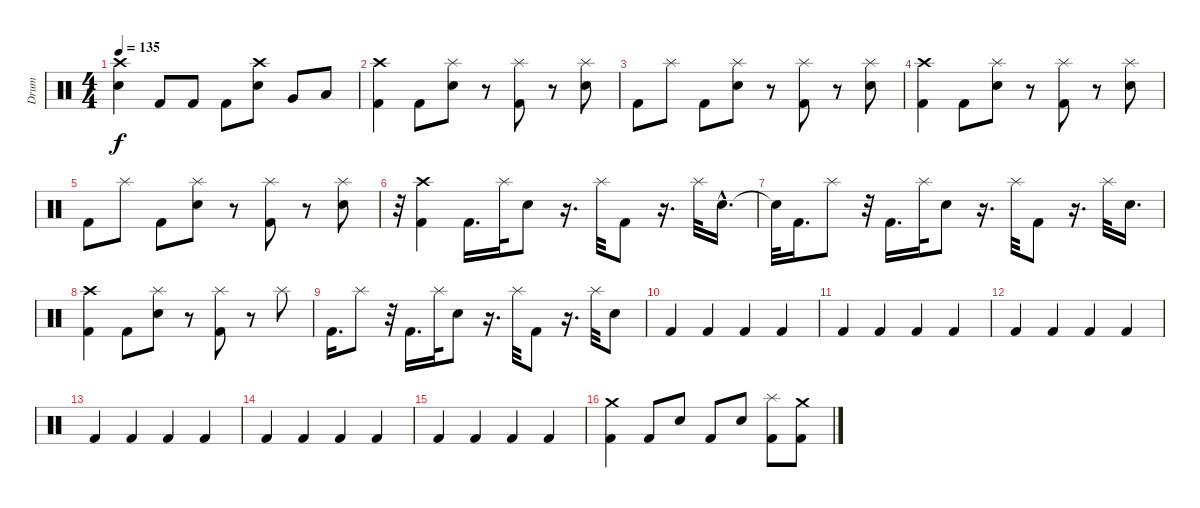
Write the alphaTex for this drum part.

\track ("Drum" "Drum") {instrument percussion}
\staff {score}
\articulation defaults
\ts (4 4)
\tempo 135
\clef neutral
\ks c
("Crash high (hit)" "Electric Snare (hit)").4{dy f} "Kick (hit) 2".8 "Kick (hit) 2".8 "Kick (hit) 2".8 ("Crash high (hit)" "Electric Snare (hit)").8 "Very Low Tom (hit)".8 "Low Floor Tom (hit)".8 |
("Crash high (hit)" "Kick (hit) 2").4 "Kick (hit) 2".8 ("Splash (hit)" "Electric Snare (hit)").8 r.8 ("Splash (hit)" "Kick (hit) 2").8 r.8 ("Splash (hit)" "Electric Snare (hit)").8 |
"Kick (hit) 2".8 "Splash (hit)".8 "Kick (hit) 2".8 ("Splash (hit)" "Electric Snare (hit)").8 r.8 ("Splash (hit)" "Kick (hit) 2").8 r.8 ("Splash (hit)" "Electric Snare (hit)").8 |
("Crash high (hit)" "Kick (hit) 2").4 "Kick (hit) 2".8 ("Splash (hit)" "Electric Snare (hit)").8 r.8 ("Splash (hit)" "Kick (hit) 2").8 r.8 ("Splash (hit)" "Electric Snare (hit)").8 |
"Kick (hit) 2".8 "Splash (hit)".8 "Kick (hit) 2".8 ("Splash (hit)" "Electric Snare (hit)").8 r.8 ("Splash (hit)" "Kick (hit) 2").8 r.8 ("Splash (hit)" "Electric Snare (hit)").8 |
r.32 ("Crash high (hit)" "Kick (hit) 2").4 "Kick (hit) 2".16{d} "Splash (hit)".32 "Electric Snare (hit)".8 r.16{d} "Splash (hit)".32 "Kick (hit) 2".8 r.16{d} "Splash (hit)".32 "Electric Snare (hit)"{hac}.16{d} |
"Snare (hit)"{t}.32 "Kick (hit) 2".16{d} "Splash (hit)".8 r.32 "Kick (hit) 2".16{d} "Splash (hit)".32 "Electric Snare (hit)".8 r.16{d} "Splash (hit)".32 "Kick (hit) 2".8 r.16{d} "Splash (hit)".32 "Electric Snare (hit)".16{d} |
("Crash high (hit)" "Kick (hit) 2").4 "Kick (hit) 2".8 ("Splash (hit)" "Electric Snare (hit)").8 r.8 ("Splash (hit)" "Kick (hit) 2").8 r.8 "Splash (hit)".8 |
"Kick (hit) 2".16{d} "Splash (hit)".8 r.32 "Kick (hit) 2".16{d} "Splash (hit)".32 "Electric Snare (hit)".8 r.16{d} "Splash (hit)".32 "Kick (hit) 2".8 r.16{d} "Splash (hit)".32 "Electric Snare (hit)".8 |
"Kick (hit) 2".4 "Kick (hit) 2".4 "Kick (hit) 2".4 "Kick (hit) 2".4 |
"Kick (hit) 2".4 "Kick (hit) 2".4 "Kick (hit) 2".4 "Kick (hit) 2".4 |
"Kick (hit) 2".4 "Kick (hit) 2".4 "Kick (hit) 2".4 "Kick (hit) 2".4 |
"Kick (hit) 2".4 "Kick (hit) 2".4 "Kick (hit) 2".4 "Kick (hit) 2".4 |
"Kick (hit) 2".4 "Kick (hit) 2".4 "Kick (hit) 2".4 "Kick (hit) 2".4 |
"Kick (hit) 2".4 "Kick (hit) 2".4 "Kick (hit) 2".4 "Kick (hit) 2".4 |
("Crash medium (hit)" "Kick (hit) 2").4 "Kick (hit) 2".8 "Electric Snare (hit)".8 "Kick (hit) 2".8 "Electric Snare (hit)".8 ("Splash (hit)" "Kick (hit) 2").8 ("Crash medium (hit)" "Kick (hit) 2").8
